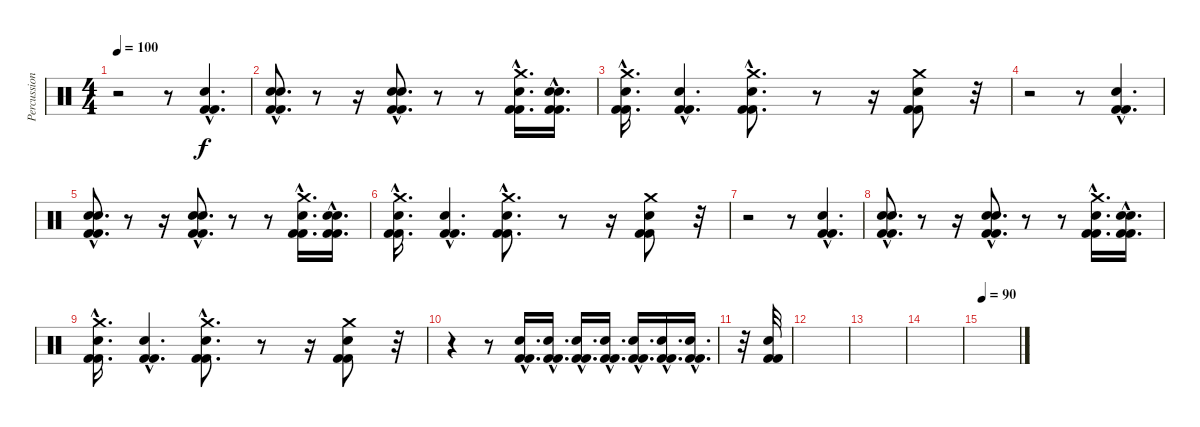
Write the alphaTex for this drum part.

\track ("Percussion" "Percussion") {instrument percussion}
\staff {score}
\articulation defaults
\ts (4 4)
\tempo 100
\clef neutral
\ks c
r.2{dy f} r.8 ("Kick (hit) 2"{hac} "Kick (hit) 2"{hac} "Metronome (bell)"{hac}).4{d} |
("Kick (hit) 2"{hac} "Kick (hit) 2"{hac} "Metronome (bell)"{hac} "Metronome (bell)"{hac}).8{d} r.8 r.16 ("Kick (hit) 2"{hac} "Kick (hit) 2"{hac} "Metronome (bell)"{hac} "Metronome (bell)"{hac}).8{d} r.8 r.8 ("Kick (hit) 2"{hac} "Kick (hit) 2"{hac} "Metronome (bell)"{hac} "Crash medium (hit)"{hac}).16{d} ("Kick (hit) 2"{hac} "Kick (hit) 2"{hac} "Metronome (bell)"{hac} "Metronome (bell)"{hac}).16{d} |
("Kick (hit) 2"{hac} "Kick (hit) 2"{hac} "Metronome (bell)"{hac} "Crash medium (hit)"{hac}).16{d} ("Kick (hit) 2"{hac} "Kick (hit) 2"{hac} "Metronome (bell)"{hac}).4{d} ("Kick (hit) 2"{hac} "Kick (hit) 2"{hac} "Metronome (bell)"{hac} "Crash medium (hit)"{hac}).8{d} r.8 r.16 ("Kick (hit) 2" "Kick (hit) 2" "Metronome (bell)" "Crash medium (hit)").8 r.32 |
r.2 r.8 ("Kick (hit) 2"{hac} "Kick (hit) 2"{hac} "Metronome (bell)"{hac}).4{d} |
("Kick (hit) 2"{hac} "Kick (hit) 2"{hac} "Metronome (bell)"{hac} "Metronome (bell)"{hac}).8{d} r.8 r.16 ("Kick (hit) 2"{hac} "Kick (hit) 2"{hac} "Metronome (bell)"{hac} "Metronome (bell)"{hac}).8{d} r.8 r.8 ("Kick (hit) 2"{hac} "Kick (hit) 2"{hac} "Metronome (bell)"{hac} "Crash medium (hit)"{hac}).16{d} ("Kick (hit) 2"{hac} "Kick (hit) 2"{hac} "Metronome (bell)"{hac} "Metronome (bell)"{hac}).16{d} |
("Kick (hit) 2"{hac} "Kick (hit) 2"{hac} "Metronome (bell)"{hac} "Crash medium (hit)"{hac}).16{d} ("Kick (hit) 2"{hac} "Kick (hit) 2"{hac} "Metronome (bell)"{hac}).4{d} ("Kick (hit) 2"{hac} "Kick (hit) 2"{hac} "Metronome (bell)"{hac} "Crash medium (hit)"{hac}).8{d} r.8 r.16 ("Kick (hit) 2" "Kick (hit) 2" "Metronome (bell)" "Crash medium (hit)").8 r.32 |
r.2 r.8 ("Kick (hit) 2"{hac} "Kick (hit) 2"{hac} "Metronome (bell)"{hac}).4{d} |
("Kick (hit) 2"{hac} "Kick (hit) 2"{hac} "Metronome (bell)"{hac} "Metronome (bell)"{hac}).8{d} r.8 r.16 ("Kick (hit) 2"{hac} "Kick (hit) 2"{hac} "Metronome (bell)"{hac} "Metronome (bell)"{hac}).8{d} r.8 r.8 ("Kick (hit) 2"{hac} "Kick (hit) 2"{hac} "Metronome (bell)"{hac} "Crash medium (hit)"{hac}).16{d} ("Kick (hit) 2"{hac} "Kick (hit) 2"{hac} "Metronome (bell)"{hac} "Metronome (bell)"{hac}).16{d} |
("Kick (hit) 2"{hac} "Kick (hit) 2"{hac} "Metronome (bell)"{hac} "Crash medium (hit)"{hac}).16{d} ("Kick (hit) 2"{hac} "Kick (hit) 2"{hac} "Metronome (bell)"{hac}).4{d} ("Kick (hit) 2"{hac} "Kick (hit) 2"{hac} "Metronome (bell)"{hac} "Crash medium (hit)"{hac}).8{d} r.8 r.16 ("Kick (hit) 2" "Kick (hit) 2" "Metronome (bell)" "Crash medium (hit)").8 r.32 |
r.4 r.8 ("Kick (hit) 2"{hac} "Kick (hit) 2"{hac} "Metronome (bell)"{hac}).16{d} ("Kick (hit) 2"{hac} "Kick (hit) 2"{hac} "Metronome (bell)"{hac}).16{d} ("Kick (hit) 2"{hac} "Kick (hit) 2"{hac} "Metronome (bell)"{hac}).16{d} ("Kick (hit) 2"{hac} "Kick (hit) 2"{hac} "Metronome (bell)"{hac}).16{d} ("Kick (hit) 2"{hac} "Kick (hit) 2"{hac} "Metronome (bell)"{hac}).16{d} ("Kick (hit) 2"{hac} "Kick (hit) 2"{hac} "Metronome (bell)"{hac}).16{d} ("Kick (hit) 2"{hac} "Kick (hit) 2"{hac} "Metronome (bell)"{hac}).16{d} |
r.32 ("Kick (hit) 2" "Kick (hit) 2" "Metronome (bell)").32 |
|
|
|
\tempo 90
